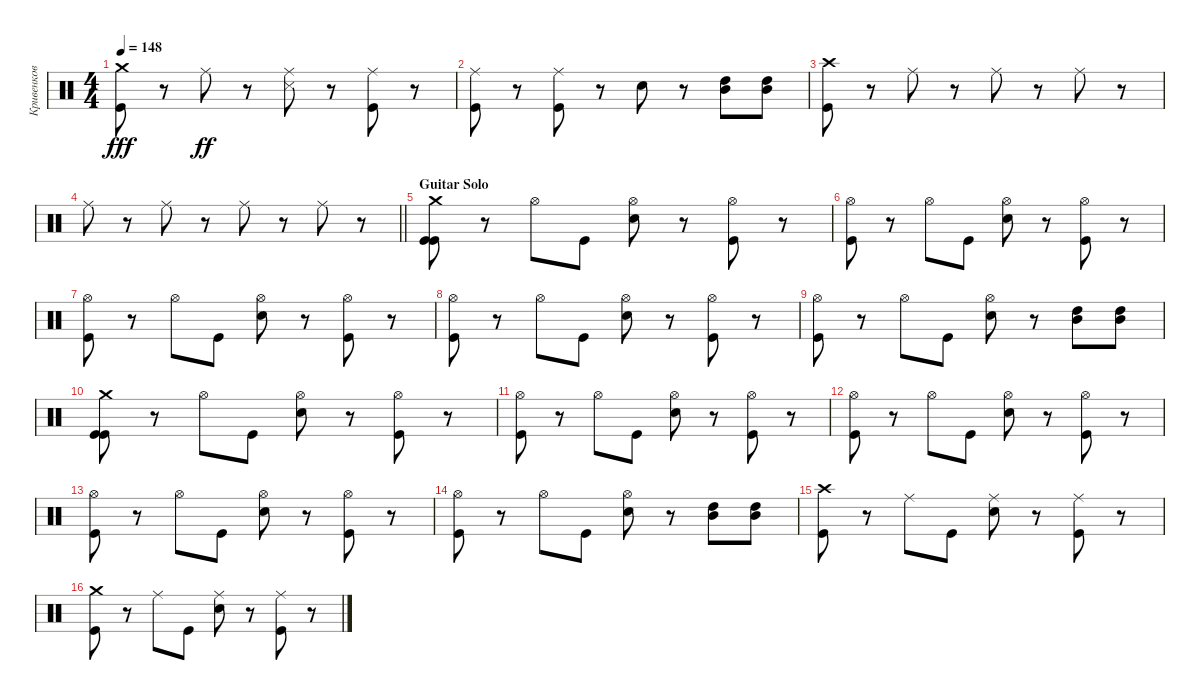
\track ("Кривенков" "Кривенков") {instrument percussion}
\staff {score}
\articulation defaults
\ts (4 4)
\tempo 148
\clef neutral
\ks c
("Crash medium (hit)" "Kick (hit)").8{dy fff} r.8 "Ride (middle)".8{dy ff} r.8 ("Snare (side stick) 3" "Ride (middle)").8 r.8 ("Kick (hit)" "Ride (middle)").8 r.8 |
("Kick (hit)" "Ride (middle)").8 r.8 ("Kick (hit)" "Ride (middle)").8 r.8 "Snare (hit) 2".8 r.8 ("Mid Tom (hit)" "High Tom (hit)").8 ("Mid Tom (hit)" "High Tom (hit)").8 |
("Crash high (hit)" "Kick (hit)").8 r.8 "Ride (middle)".8{volume 10} r.8 "Ride (middle)".8 r.8 "Ride (middle)".8 r.8 |
\barLineRight lightlight "Ride (middle)".8
r.8 "Ride (middle)".8 r.8 "Ride (middle)".8 r.8 "Ride (middle)".8 r.8 |
\section ("" "Guitar Solo")
("Crash medium (hit)" "Kick (hit)" "Kick (hit)").8{volume 14} r.8 "Hi-Hat (open)".8 "Kick (hit)".8 ("Snare (hit) 2" "Hi-Hat (open)").8 r.8 ("Kick (hit)" "Hi-Hat (open)").8 r.8 |
("Kick (hit)" "Hi-Hat (open)").8 r.8 "Hi-Hat (open)".8 "Kick (hit)".8 ("Snare (hit) 2" "Hi-Hat (open)").8 r.8 ("Kick (hit)" "Hi-Hat (open)").8 r.8 |
("Hi-Hat (open)" "Kick (hit)").8 r.8 "Hi-Hat (open)".8 "Kick (hit)".8 ("Hi-Hat (open)" "Snare (hit) 2").8 r.8 ("Hi-Hat (open)" "Kick (hit)").8 r.8 |
("Hi-Hat (open)" "Kick (hit)").8 r.8 "Hi-Hat (open)".8 "Kick (hit)".8 ("Hi-Hat (open)" "Snare (hit) 2").8 r.8 ("Kick (hit)" "Hi-Hat (open)").8 r.8 |
("Hi-Hat (open)" "Kick (hit)").8 r.8 "Hi-Hat (open)".8 "Kick (hit)".8 ("Hi-Hat (open)" "Snare (hit) 2").8 r.8 ("Mid Tom (hit)" "High Tom (hit)").8 ("Mid Tom (hit)" "High Tom (hit)").8 |
("Crash medium (hit)" "Kick (hit)" "Kick (hit)").8 r.8 "Hi-Hat (open)".8 "Kick (hit)".8 ("Snare (hit) 2" "Hi-Hat (open)").8 r.8 ("Kick (hit)" "Hi-Hat (open)").8 r.8 |
("Kick (hit)" "Hi-Hat (open)").8 r.8 "Hi-Hat (open)".8 "Kick (hit)".8 ("Snare (hit) 2" "Hi-Hat (open)").8 r.8 ("Kick (hit)" "Hi-Hat (open)").8 r.8 |
("Hi-Hat (open)" "Kick (hit)").8 r.8 "Hi-Hat (open)".8 "Kick (hit)".8 ("Hi-Hat (open)" "Snare (hit) 2").8 r.8 ("Hi-Hat (open)" "Kick (hit)").8 r.8 |
("Hi-Hat (open)" "Kick (hit)").8 r.8 "Hi-Hat (open)".8 "Kick (hit)".8 ("Hi-Hat (open)" "Snare (hit) 2").8 r.8 ("Kick (hit)" "Hi-Hat (open)").8 r.8 |
("Hi-Hat (open)" "Kick (hit)").8 r.8 "Hi-Hat (open)".8 "Kick (hit)".8 ("Hi-Hat (open)" "Snare (hit) 2").8 r.8 ("Mid Tom (hit)" "High Tom (hit)").8 ("Mid Tom (hit)" "High Tom (hit)").8 |
("Kick (hit)" "Crash high (hit)").8 r.8 "Ride (middle)".8 "Kick (hit)".8 ("Ride (middle)" "Snare (hit) 2").8 r.8 ("Kick (hit)" "Ride (middle)").8 r.8 |
("Kick (hit)" "Crash medium (hit)").8 r.8 "Ride (middle)".8 "Kick (hit)".8 ("Ride (middle)" "Snare (hit) 2").8 r.8 ("Ride (middle)" "Kick (hit)").8 r.8
